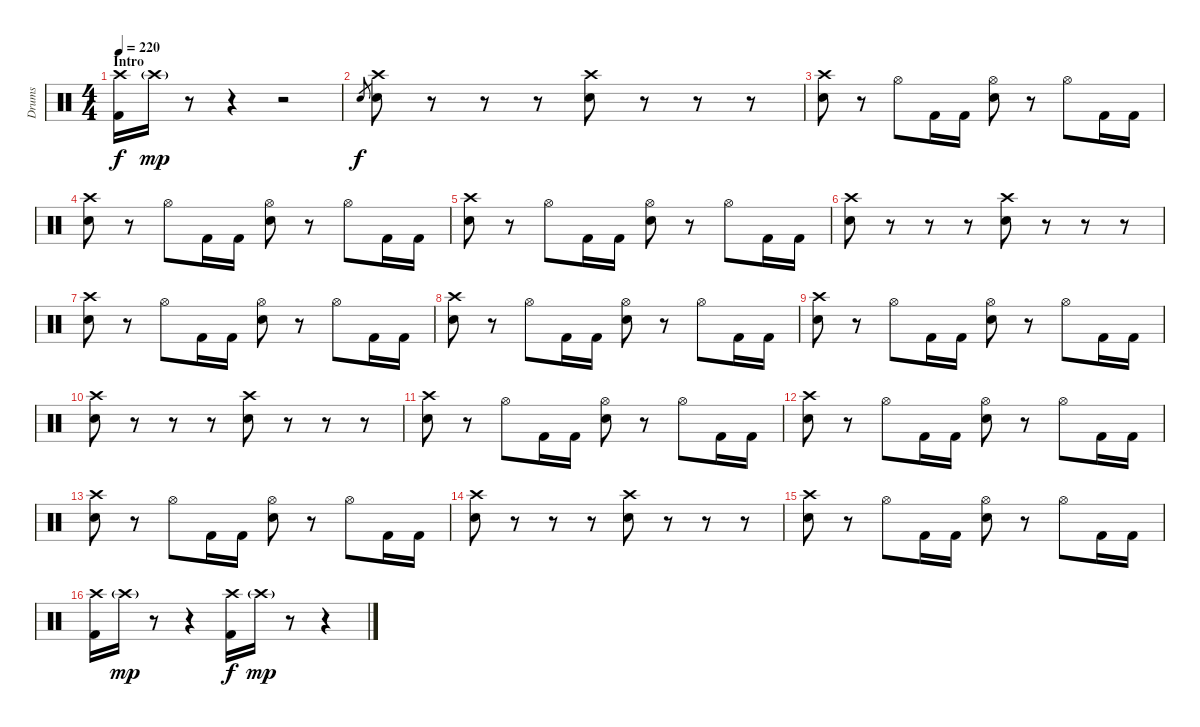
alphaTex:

\track ("Drums" "Drums") {instrument percussion}
\staff {score}
\articulation defaults
\ts (4 4)
\section ("" "Intro")
\tempo 220
\clef neutral
\ks c
("Crash high (hit)" "Kick (hit) 2").16{dy f} "Crash high (hit)"{g}.16{dy mp} r.8 r.4 r.2 |
"Electric Snare (hit)".8{gr dy f} ("Crash high (hit)" "Electric Snare (hit)").8 r.8 r.8 r.8 ("Crash high (hit)" "Electric Snare (hit)").8 r.8 r.8 r.8 |
("Crash high (hit)" "Electric Snare (hit)").8 r.8 "Hi-Hat (open)".8 "Kick (hit) 2".16 "Kick (hit) 2".16 ("Hi-Hat (open)" "Electric Snare (hit)").8 r.8 "Hi-Hat (open)".8 "Kick (hit) 2".16 "Kick (hit) 2".16 |
("Crash high (hit)" "Electric Snare (hit)").8 r.8 "Hi-Hat (open)".8 "Kick (hit) 2".16 "Kick (hit) 2".16 ("Hi-Hat (open)" "Electric Snare (hit)").8 r.8 "Hi-Hat (open)".8 "Kick (hit) 2".16 "Kick (hit) 2".16 |
("Crash high (hit)" "Electric Snare (hit)").8 r.8 "Hi-Hat (open)".8 "Kick (hit) 2".16 "Kick (hit) 2".16 ("Hi-Hat (open)" "Electric Snare (hit)").8 r.8 "Hi-Hat (open)".8 "Kick (hit) 2".16 "Kick (hit) 2".16 |
("Crash high (hit)" "Electric Snare (hit)").8 r.8 r.8 r.8 ("Crash high (hit)" "Electric Snare (hit)").8 r.8 r.8 r.8 |
("Crash high (hit)" "Electric Snare (hit)").8 r.8 "Hi-Hat (open)".8 "Kick (hit) 2".16 "Kick (hit) 2".16 ("Hi-Hat (open)" "Electric Snare (hit)").8 r.8 "Hi-Hat (open)".8 "Kick (hit) 2".16 "Kick (hit) 2".16 |
("Crash high (hit)" "Electric Snare (hit)").8 r.8 "Hi-Hat (open)".8 "Kick (hit) 2".16 "Kick (hit) 2".16 ("Hi-Hat (open)" "Electric Snare (hit)").8 r.8 "Hi-Hat (open)".8 "Kick (hit) 2".16 "Kick (hit) 2".16 |
("Crash high (hit)" "Electric Snare (hit)").8 r.8 "Hi-Hat (open)".8 "Kick (hit) 2".16 "Kick (hit) 2".16 ("Hi-Hat (open)" "Electric Snare (hit)").8 r.8 "Hi-Hat (open)".8 "Kick (hit) 2".16 "Kick (hit) 2".16 |
("Crash high (hit)" "Electric Snare (hit)").8 r.8 r.8 r.8 ("Crash high (hit)" "Electric Snare (hit)").8 r.8 r.8 r.8 |
("Crash high (hit)" "Electric Snare (hit)").8 r.8 "Hi-Hat (open)".8 "Kick (hit) 2".16 "Kick (hit) 2".16 ("Hi-Hat (open)" "Electric Snare (hit)").8 r.8 "Hi-Hat (open)".8 "Kick (hit) 2".16 "Kick (hit) 2".16 |
("Crash high (hit)" "Electric Snare (hit)").8 r.8 "Hi-Hat (open)".8 "Kick (hit) 2".16 "Kick (hit) 2".16 ("Hi-Hat (open)" "Electric Snare (hit)").8 r.8 "Hi-Hat (open)".8 "Kick (hit) 2".16 "Kick (hit) 2".16 |
("Crash high (hit)" "Electric Snare (hit)").8 r.8 "Hi-Hat (open)".8 "Kick (hit) 2".16 "Kick (hit) 2".16 ("Hi-Hat (open)" "Electric Snare (hit)").8 r.8 "Hi-Hat (open)".8 "Kick (hit) 2".16 "Kick (hit) 2".16 |
("Crash high (hit)" "Electric Snare (hit)").8 r.8 r.8 r.8 ("Crash high (hit)" "Electric Snare (hit)").8 r.8 r.8 r.8 |
("Crash high (hit)" "Electric Snare (hit)").8 r.8 "Hi-Hat (open)".8 "Kick (hit) 2".16 "Kick (hit) 2".16 ("Hi-Hat (open)" "Electric Snare (hit)").8 r.8 "Hi-Hat (open)".8 "Kick (hit) 2".16 "Kick (hit) 2".16 |
("Crash high (hit)" "Kick (hit) 2").16 "Crash high (hit)"{g}.16{dy mp} r.8 r.4 ("Crash high (hit)" "Kick (hit) 2").16{dy f} "Crash high (hit)"{g}.16{dy mp} r.8 r.4
